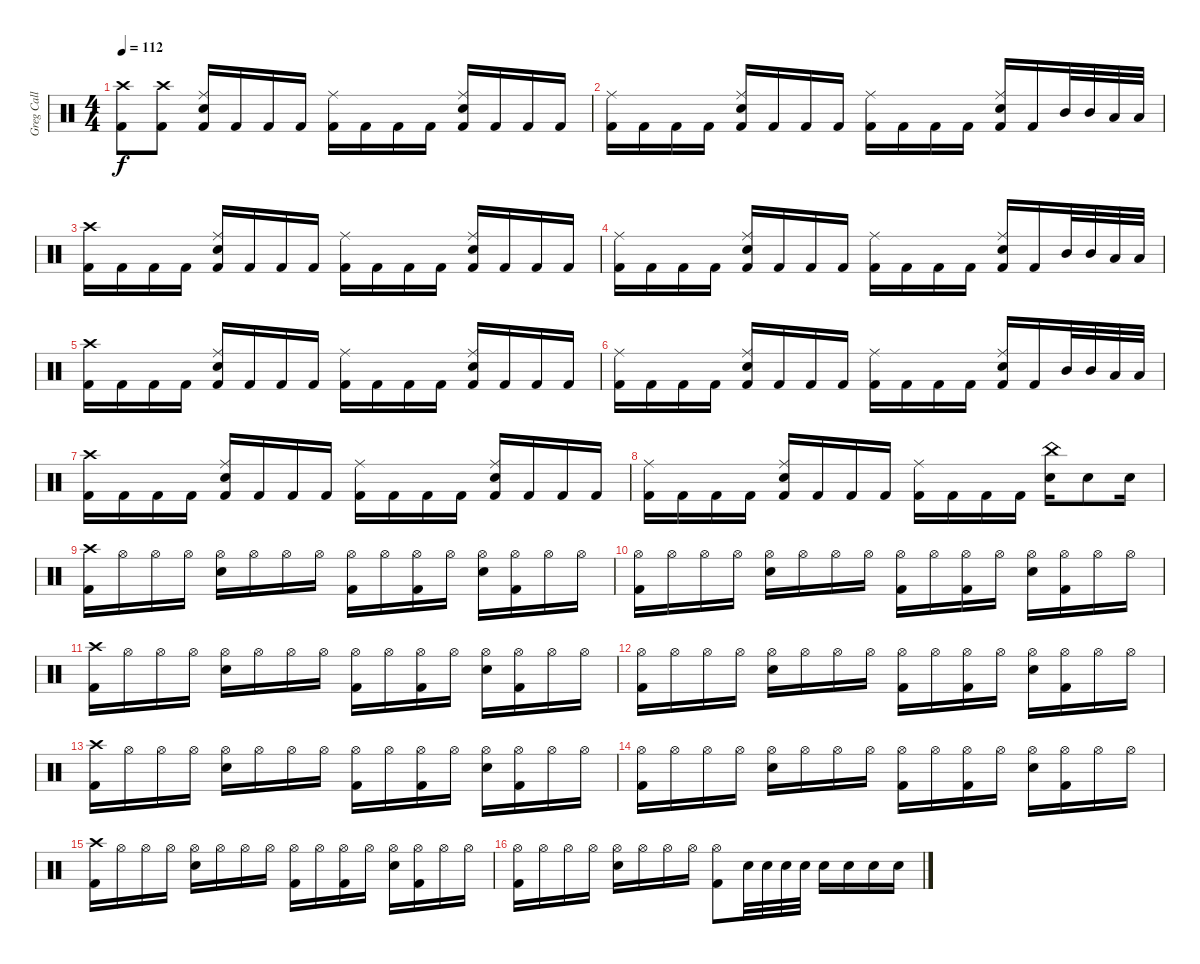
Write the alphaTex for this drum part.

\track ("Greg Call (Drums)" "Greg Call ") {instrument percussion}
\staff {score}
\articulation defaults
\ts (4 4)
\tempo 112
\clef neutral
\ks c
("Crash high (hit)" "Kick (hit) 2").8{dy f} ("Crash high (hit)" "Kick (hit) 2").8 ("Ride (middle)" "Snare (hit) 2" "Kick (hit) 2").16 "Kick (hit) 2".16 "Kick (hit) 2".16 "Kick (hit) 2".16 ("Ride (middle)" "Kick (hit) 2").16 "Kick (hit) 2".16 "Kick (hit) 2".16 "Kick (hit) 2".16 ("Ride (middle)" "Snare (hit) 2" "Kick (hit) 2").16 "Kick (hit) 2".16 "Kick (hit) 2".16 "Kick (hit) 2".16 |
("Ride (middle)" "Kick (hit) 2").16 "Kick (hit) 2".16 "Kick (hit) 2".16 "Kick (hit) 2".16 ("Ride (middle)" "Snare (hit) 2" "Kick (hit) 2").16 "Kick (hit) 2".16 "Kick (hit) 2".16 "Kick (hit) 2".16 ("Ride (middle)" "Kick (hit) 2").16 "Kick (hit) 2".16 "Kick (hit) 2".16 "Kick (hit) 2".16 ("Ride (middle)" "Snare (hit) 2" "Kick (hit) 2").16 "Kick (hit) 2".16 "Mid Tom (hit)".32 "Mid Tom (hit)".32 "Low Floor Tom (hit)".32 "Low Floor Tom (hit)".32 |
("Crash high (hit)" "Kick (hit) 2").16 "Kick (hit) 2".16 "Kick (hit) 2".16 "Kick (hit) 2".16 ("Ride (middle)" "Snare (hit) 2" "Kick (hit) 2").16 "Kick (hit) 2".16 "Kick (hit) 2".16 "Kick (hit) 2".16 ("Ride (middle)" "Kick (hit) 2").16 "Kick (hit) 2".16 "Kick (hit) 2".16 "Kick (hit) 2".16 ("Ride (middle)" "Snare (hit) 2" "Kick (hit) 2").16 "Kick (hit) 2".16 "Kick (hit) 2".16 "Kick (hit) 2".16 |
("Ride (middle)" "Kick (hit) 2").16 "Kick (hit) 2".16 "Kick (hit) 2".16 "Kick (hit) 2".16 ("Ride (middle)" "Snare (hit) 2" "Kick (hit) 2").16 "Kick (hit) 2".16 "Kick (hit) 2".16 "Kick (hit) 2".16 ("Ride (middle)" "Kick (hit) 2").16 "Kick (hit) 2".16 "Kick (hit) 2".16 "Kick (hit) 2".16 ("Ride (middle)" "Snare (hit) 2" "Kick (hit) 2").16 "Kick (hit) 2".16 "Mid Tom (hit)".32 "Mid Tom (hit)".32 "Low Floor Tom (hit)".32 "Low Floor Tom (hit)".32 |
("Crash high (hit)" "Kick (hit) 2").16 "Kick (hit) 2".16 "Kick (hit) 2".16 "Kick (hit) 2".16 ("Ride (middle)" "Snare (hit) 2" "Kick (hit) 2").16 "Kick (hit) 2".16 "Kick (hit) 2".16 "Kick (hit) 2".16 ("Ride (middle)" "Kick (hit) 2").16 "Kick (hit) 2".16 "Kick (hit) 2".16 "Kick (hit) 2".16 ("Ride (middle)" "Snare (hit) 2" "Kick (hit) 2").16 "Kick (hit) 2".16 "Kick (hit) 2".16 "Kick (hit) 2".16 |
("Ride (middle)" "Kick (hit) 2").16 "Kick (hit) 2".16 "Kick (hit) 2".16 "Kick (hit) 2".16 ("Ride (middle)" "Snare (hit) 2" "Kick (hit) 2").16 "Kick (hit) 2".16 "Kick (hit) 2".16 "Kick (hit) 2".16 ("Ride (middle)" "Kick (hit) 2").16 "Kick (hit) 2".16 "Kick (hit) 2".16 "Kick (hit) 2".16 ("Ride (middle)" "Snare (hit) 2" "Kick (hit) 2").16 "Kick (hit) 2".16 "Mid Tom (hit)".32 "Mid Tom (hit)".32 "Low Floor Tom (hit)".32 "Low Floor Tom (hit)".32 |
("Crash high (hit)" "Kick (hit) 2").16 "Kick (hit) 2".16 "Kick (hit) 2".16 "Kick (hit) 2".16 ("Ride (middle)" "Snare (hit) 2" "Kick (hit) 2").16 "Kick (hit) 2".16 "Kick (hit) 2".16 "Kick (hit) 2".16 ("Ride (middle)" "Kick (hit) 2").16 "Kick (hit) 2".16 "Kick (hit) 2".16 "Kick (hit) 2".16 ("Ride (middle)" "Snare (hit) 2" "Kick (hit) 2").16 "Kick (hit) 2".16 "Kick (hit) 2".16 "Kick (hit) 2".16 |
("Ride (middle)" "Kick (hit) 2").16 "Kick (hit) 2".16 "Kick (hit) 2".16 "Kick (hit) 2".16 ("Ride (middle)" "Snare (hit) 2" "Kick (hit) 2").16 "Kick (hit) 2".16 "Kick (hit) 2".16 "Kick (hit) 2".16 ("Ride (middle)" "Kick (hit) 2").16 "Kick (hit) 2".16 "Kick (hit) 2".16 "Kick (hit) 2".16 ("China (hit)" "Snare (hit) 2").16 "Snare (hit) 2".8 "Snare (hit) 2".16 |
("Crash high (hit)" "Kick (hit) 2").16 "Hi-Hat (open)".16 "Hi-Hat (open)".16 "Hi-Hat (open)".16 ("Hi-Hat (open)" "Snare (hit) 2").16 "Hi-Hat (open)".16 "Hi-Hat (open)".16 "Hi-Hat (open)".16 ("Hi-Hat (open)" "Kick (hit) 2").16 "Hi-Hat (open)".16 ("Hi-Hat (open)" "Kick (hit) 2").16 "Hi-Hat (open)".16 ("Hi-Hat (open)" "Snare (hit) 2").16 ("Hi-Hat (open)" "Kick (hit) 2").16 "Hi-Hat (open)".16 "Hi-Hat (open)".16 |
("Hi-Hat (open)" "Kick (hit) 2").16 "Hi-Hat (open)".16 "Hi-Hat (open)".16 "Hi-Hat (open)".16 ("Hi-Hat (open)" "Snare (hit) 2").16 "Hi-Hat (open)".16 "Hi-Hat (open)".16 "Hi-Hat (open)".16 ("Hi-Hat (open)" "Kick (hit) 2").16 "Hi-Hat (open)".16 ("Hi-Hat (open)" "Kick (hit) 2").16 "Hi-Hat (open)".16 ("Hi-Hat (open)" "Snare (hit) 2").16 ("Hi-Hat (open)" "Kick (hit) 2").16 "Hi-Hat (open)".16 "Hi-Hat (open)".16 |
("Crash high (hit)" "Kick (hit) 2").16 "Hi-Hat (open)".16 "Hi-Hat (open)".16 "Hi-Hat (open)".16 ("Hi-Hat (open)" "Snare (hit) 2").16 "Hi-Hat (open)".16 "Hi-Hat (open)".16 "Hi-Hat (open)".16 ("Hi-Hat (open)" "Kick (hit) 2").16 "Hi-Hat (open)".16 ("Hi-Hat (open)" "Kick (hit) 2").16 "Hi-Hat (open)".16 ("Hi-Hat (open)" "Snare (hit) 2").16 ("Hi-Hat (open)" "Kick (hit) 2").16 "Hi-Hat (open)".16 "Hi-Hat (open)".16 |
("Hi-Hat (open)" "Kick (hit) 2").16 "Hi-Hat (open)".16 "Hi-Hat (open)".16 "Hi-Hat (open)".16 ("Hi-Hat (open)" "Snare (hit) 2").16 "Hi-Hat (open)".16 "Hi-Hat (open)".16 "Hi-Hat (open)".16 ("Hi-Hat (open)" "Kick (hit) 2").16 "Hi-Hat (open)".16 ("Hi-Hat (open)" "Kick (hit) 2").16 "Hi-Hat (open)".16 ("Hi-Hat (open)" "Snare (hit) 2").16 ("Hi-Hat (open)" "Kick (hit) 2").16 "Hi-Hat (open)".16 "Hi-Hat (open)".16 |
("Crash high (hit)" "Kick (hit) 2").16 "Hi-Hat (open)".16 "Hi-Hat (open)".16 "Hi-Hat (open)".16 ("Hi-Hat (open)" "Snare (hit) 2").16 "Hi-Hat (open)".16 "Hi-Hat (open)".16 "Hi-Hat (open)".16 ("Hi-Hat (open)" "Kick (hit) 2").16 "Hi-Hat (open)".16 ("Hi-Hat (open)" "Kick (hit) 2").16 "Hi-Hat (open)".16 ("Hi-Hat (open)" "Snare (hit) 2").16 ("Hi-Hat (open)" "Kick (hit) 2").16 "Hi-Hat (open)".16 "Hi-Hat (open)".16 |
("Hi-Hat (open)" "Kick (hit) 2").16 "Hi-Hat (open)".16 "Hi-Hat (open)".16 "Hi-Hat (open)".16 ("Hi-Hat (open)" "Snare (hit) 2").16 "Hi-Hat (open)".16 "Hi-Hat (open)".16 "Hi-Hat (open)".16 ("Hi-Hat (open)" "Kick (hit) 2").16 "Hi-Hat (open)".16 ("Hi-Hat (open)" "Kick (hit) 2").16 "Hi-Hat (open)".16 ("Hi-Hat (open)" "Snare (hit) 2").16 ("Hi-Hat (open)" "Kick (hit) 2").16 "Hi-Hat (open)".16 "Hi-Hat (open)".16 |
("Crash high (hit)" "Kick (hit) 2").16 "Hi-Hat (open)".16 "Hi-Hat (open)".16 "Hi-Hat (open)".16 ("Hi-Hat (open)" "Snare (hit) 2").16 "Hi-Hat (open)".16 "Hi-Hat (open)".16 "Hi-Hat (open)".16 ("Hi-Hat (open)" "Kick (hit) 2").16 "Hi-Hat (open)".16 ("Hi-Hat (open)" "Kick (hit) 2").16 "Hi-Hat (open)".16 ("Hi-Hat (open)" "Snare (hit) 2").16 ("Hi-Hat (open)" "Kick (hit) 2").16 "Hi-Hat (open)".16 "Hi-Hat (open)".16 |
("Hi-Hat (open)" "Kick (hit) 2").16 "Hi-Hat (open)".16 "Hi-Hat (open)".16 "Hi-Hat (open)".16 ("Hi-Hat (open)" "Snare (hit) 2").16 "Hi-Hat (open)".16 "Hi-Hat (open)".16 "Hi-Hat (open)".16 ("Hi-Hat (open)" "Kick (hit) 2").8 "Snare (hit) 2".32 "Snare (hit) 2".32 "Snare (hit) 2".32 "Snare (hit) 2".32 "Snare (hit) 2".16 "Snare (hit) 2".16 "Snare (hit) 2".16 "Snare (hit) 2".16
